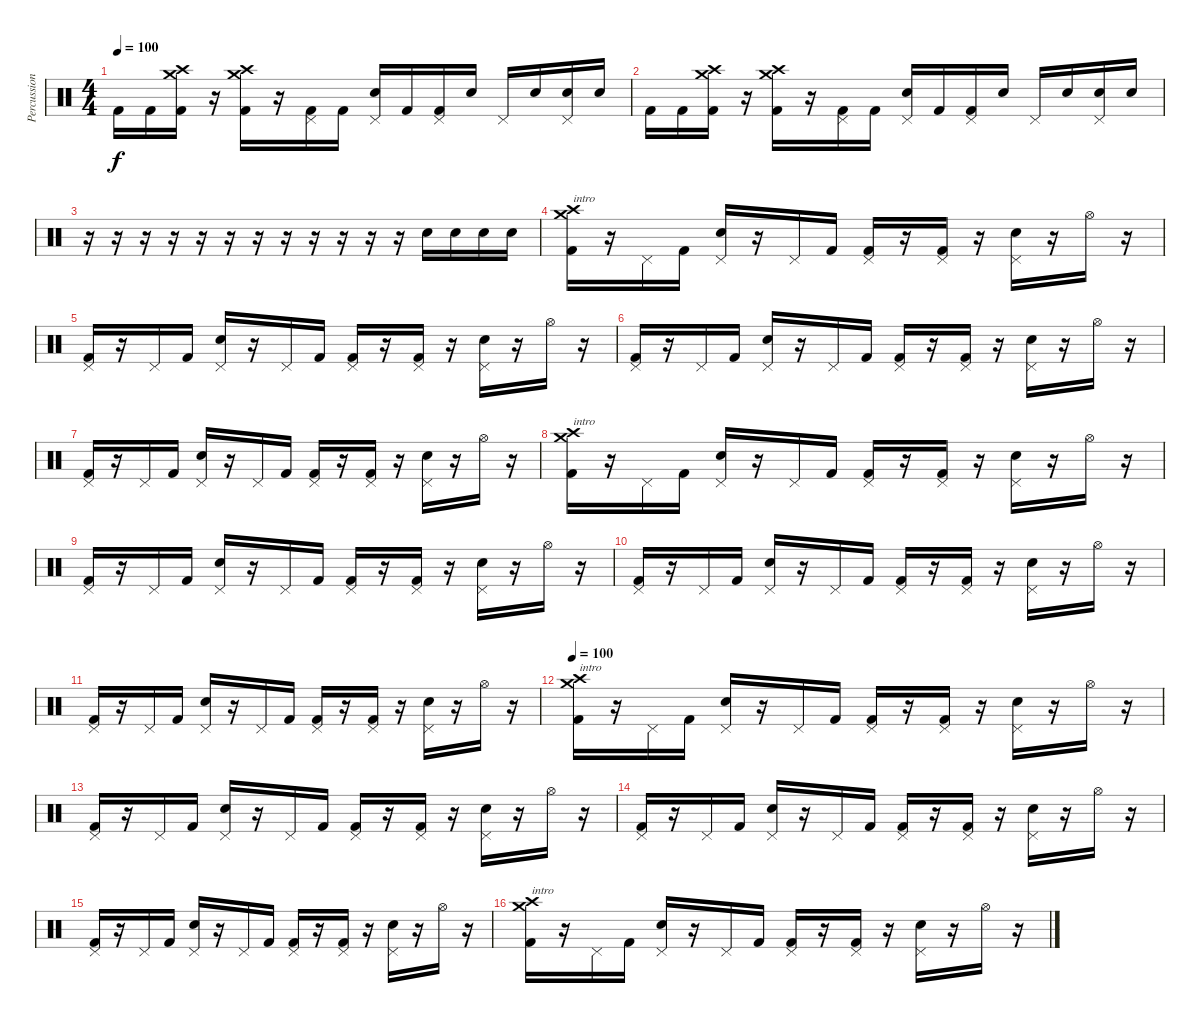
\track ("Percussion" "Percussion") {instrument percussion}
\staff {score}
\articulation defaults
\ts (4 4)
\tempo 100
\clef neutral
\ks c "Kick (hit) 2".16{dy f} "Kick (hit) 2".16
("Crash high (hit)" "Crash medium (hit)" "Kick (hit) 2").16 r.16 ("Crash high (hit)" "Crash medium (hit)" "Kick (hit) 2").16 r.16 ("Pedal Hi-Hat (hit)" "Kick (hit) 2").16 "Kick (hit) 2".16 ("Pedal Hi-Hat (hit)" "Electric Snare (hit)").16 "Kick (hit) 2".16 ("Pedal Hi-Hat (hit)" "Kick (hit) 2").16 "Electric Snare (hit)".16 "Pedal Hi-Hat (hit)".16 "Electric Snare (hit)".16 ("Pedal Hi-Hat (hit)" "Electric Snare (hit)").16 "Electric Snare (hit)".16 |
"Kick (hit) 2".16 "Kick (hit) 2".16 ("Crash high (hit)" "Crash medium (hit)" "Kick (hit) 2").16 r.16 ("Crash high (hit)" "Crash medium (hit)" "Kick (hit) 2").16 r.16 ("Pedal Hi-Hat (hit)" "Kick (hit) 2").16 "Kick (hit) 2".16 ("Pedal Hi-Hat (hit)" "Electric Snare (hit)").16 "Kick (hit) 2".16 ("Pedal Hi-Hat (hit)" "Kick (hit) 2").16 "Electric Snare (hit)".16 "Pedal Hi-Hat (hit)".16 "Electric Snare (hit)".16 ("Pedal Hi-Hat (hit)" "Electric Snare (hit)").16 "Electric Snare (hit)".16 |
r.16 r.16 r.16 r.16 r.16 r.16 r.16 r.16 r.16 r.16 r.16 r.16 "Electric Snare (hit)".16 "Electric Snare (hit)".16 "Electric Snare (hit)".16 "Electric Snare (hit)".16 |
("Crash high (hit)" "Crash medium (hit)" "Kick (hit) 2").16{txt "intro"} r.16 "Pedal Hi-Hat (hit)".16 "Kick (hit) 2".16 ("Pedal Hi-Hat (hit)" "Electric Snare (hit)").16 r.16 "Pedal Hi-Hat (hit)".16 "Kick (hit) 2".16 ("Pedal Hi-Hat (hit)" "Kick (hit) 2").16 r.16 ("Pedal Hi-Hat (hit)" "Kick (hit) 2").16 r.16 ("Pedal Hi-Hat (hit)" "Electric Snare (hit)").16 r.16 "Hi-Hat (open)".16 r.16 |
("Pedal Hi-Hat (hit)" "Kick (hit) 2").16 r.16 "Pedal Hi-Hat (hit)".16 "Kick (hit) 2".16 ("Pedal Hi-Hat (hit)" "Electric Snare (hit)").16 r.16 "Pedal Hi-Hat (hit)".16 "Kick (hit) 2".16 ("Pedal Hi-Hat (hit)" "Kick (hit) 2").16 r.16 ("Pedal Hi-Hat (hit)" "Kick (hit) 2").16 r.16 ("Pedal Hi-Hat (hit)" "Electric Snare (hit)").16 r.16 "Hi-Hat (open)".16 r.16 |
("Pedal Hi-Hat (hit)" "Kick (hit) 2").16 r.16 "Pedal Hi-Hat (hit)".16 "Kick (hit) 2".16 ("Pedal Hi-Hat (hit)" "Electric Snare (hit)").16 r.16 "Pedal Hi-Hat (hit)".16 "Kick (hit) 2".16 ("Pedal Hi-Hat (hit)" "Kick (hit) 2").16 r.16 ("Pedal Hi-Hat (hit)" "Kick (hit) 2").16 r.16 ("Pedal Hi-Hat (hit)" "Electric Snare (hit)").16 r.16 "Hi-Hat (open)".16 r.16 |
("Pedal Hi-Hat (hit)" "Kick (hit) 2").16 r.16 "Pedal Hi-Hat (hit)".16 "Kick (hit) 2".16 ("Pedal Hi-Hat (hit)" "Electric Snare (hit)").16 r.16 "Pedal Hi-Hat (hit)".16 "Kick (hit) 2".16 ("Pedal Hi-Hat (hit)" "Kick (hit) 2").16 r.16 ("Pedal Hi-Hat (hit)" "Kick (hit) 2").16 r.16 ("Pedal Hi-Hat (hit)" "Electric Snare (hit)").16 r.16 "Hi-Hat (open)".16 r.16 |
("Crash high (hit)" "Crash medium (hit)" "Kick (hit) 2").16{txt "intro"} r.16 "Pedal Hi-Hat (hit)".16 "Kick (hit) 2".16 ("Pedal Hi-Hat (hit)" "Electric Snare (hit)").16 r.16 "Pedal Hi-Hat (hit)".16 "Kick (hit) 2".16 ("Pedal Hi-Hat (hit)" "Kick (hit) 2").16 r.16 ("Pedal Hi-Hat (hit)" "Kick (hit) 2").16 r.16 ("Pedal Hi-Hat (hit)" "Electric Snare (hit)").16 r.16 "Hi-Hat (open)".16 r.16 |
("Pedal Hi-Hat (hit)" "Kick (hit) 2").16 r.16 "Pedal Hi-Hat (hit)".16 "Kick (hit) 2".16 ("Pedal Hi-Hat (hit)" "Electric Snare (hit)").16 r.16 "Pedal Hi-Hat (hit)".16 "Kick (hit) 2".16 ("Pedal Hi-Hat (hit)" "Kick (hit) 2").16 r.16 ("Pedal Hi-Hat (hit)" "Kick (hit) 2").16 r.16 ("Pedal Hi-Hat (hit)" "Electric Snare (hit)").16 r.16 "Hi-Hat (open)".16 r.16 |
("Pedal Hi-Hat (hit)" "Kick (hit) 2").16 r.16 "Pedal Hi-Hat (hit)".16 "Kick (hit) 2".16 ("Pedal Hi-Hat (hit)" "Electric Snare (hit)").16 r.16 "Pedal Hi-Hat (hit)".16 "Kick (hit) 2".16 ("Pedal Hi-Hat (hit)" "Kick (hit) 2").16 r.16 ("Pedal Hi-Hat (hit)" "Kick (hit) 2").16 r.16 ("Pedal Hi-Hat (hit)" "Electric Snare (hit)").16 r.16 "Hi-Hat (open)".16 r.16 |
("Pedal Hi-Hat (hit)" "Kick (hit) 2").16 r.16 "Pedal Hi-Hat (hit)".16 "Kick (hit) 2".16 ("Pedal Hi-Hat (hit)" "Electric Snare (hit)").16 r.16 "Pedal Hi-Hat (hit)".16 "Kick (hit) 2".16 ("Pedal Hi-Hat (hit)" "Kick (hit) 2").16 r.16 ("Pedal Hi-Hat (hit)" "Kick (hit) 2").16 r.16 ("Pedal Hi-Hat (hit)" "Electric Snare (hit)").16 r.16 "Hi-Hat (open)".16 r.16 |
\tempo 100
("Crash high (hit)" "Crash medium (hit)" "Kick (hit) 2").16{txt "intro"} r.16 "Pedal Hi-Hat (hit)".16 "Kick (hit) 2".16 ("Pedal Hi-Hat (hit)" "Electric Snare (hit)").16 r.16 "Pedal Hi-Hat (hit)".16 "Kick (hit) 2".16 ("Pedal Hi-Hat (hit)" "Kick (hit) 2").16 r.16 ("Pedal Hi-Hat (hit)" "Kick (hit) 2").16 r.16 ("Pedal Hi-Hat (hit)" "Electric Snare (hit)").16 r.16 "Hi-Hat (open)".16 r.16 |
("Pedal Hi-Hat (hit)" "Kick (hit) 2").16 r.16 "Pedal Hi-Hat (hit)".16 "Kick (hit) 2".16 ("Pedal Hi-Hat (hit)" "Electric Snare (hit)").16 r.16 "Pedal Hi-Hat (hit)".16 "Kick (hit) 2".16 ("Pedal Hi-Hat (hit)" "Kick (hit) 2").16 r.16 ("Pedal Hi-Hat (hit)" "Kick (hit) 2").16 r.16 ("Pedal Hi-Hat (hit)" "Electric Snare (hit)").16 r.16 "Hi-Hat (open)".16 r.16 |
("Pedal Hi-Hat (hit)" "Kick (hit) 2").16 r.16 "Pedal Hi-Hat (hit)".16 "Kick (hit) 2".16 ("Pedal Hi-Hat (hit)" "Electric Snare (hit)").16 r.16 "Pedal Hi-Hat (hit)".16 "Kick (hit) 2".16 ("Pedal Hi-Hat (hit)" "Kick (hit) 2").16 r.16 ("Pedal Hi-Hat (hit)" "Kick (hit) 2").16 r.16 ("Pedal Hi-Hat (hit)" "Electric Snare (hit)").16 r.16 "Hi-Hat (open)".16 r.16 |
("Pedal Hi-Hat (hit)" "Kick (hit) 2").16 r.16 "Pedal Hi-Hat (hit)".16 "Kick (hit) 2".16 ("Pedal Hi-Hat (hit)" "Electric Snare (hit)").16 r.16 "Pedal Hi-Hat (hit)".16 "Kick (hit) 2".16 ("Pedal Hi-Hat (hit)" "Kick (hit) 2").16 r.16 ("Pedal Hi-Hat (hit)" "Kick (hit) 2").16 r.16 ("Pedal Hi-Hat (hit)" "Electric Snare (hit)").16 r.16 "Hi-Hat (open)".16 r.16 |
("Crash high (hit)" "Crash medium (hit)" "Kick (hit) 2").16{txt "intro"} r.16 "Pedal Hi-Hat (hit)".16 "Kick (hit) 2".16 ("Pedal Hi-Hat (hit)" "Electric Snare (hit)").16 r.16 "Pedal Hi-Hat (hit)".16 "Kick (hit) 2".16 ("Pedal Hi-Hat (hit)" "Kick (hit) 2").16 r.16 ("Pedal Hi-Hat (hit)" "Kick (hit) 2").16 r.16 ("Pedal Hi-Hat (hit)" "Electric Snare (hit)").16 r.16 "Hi-Hat (open)".16 r.16
